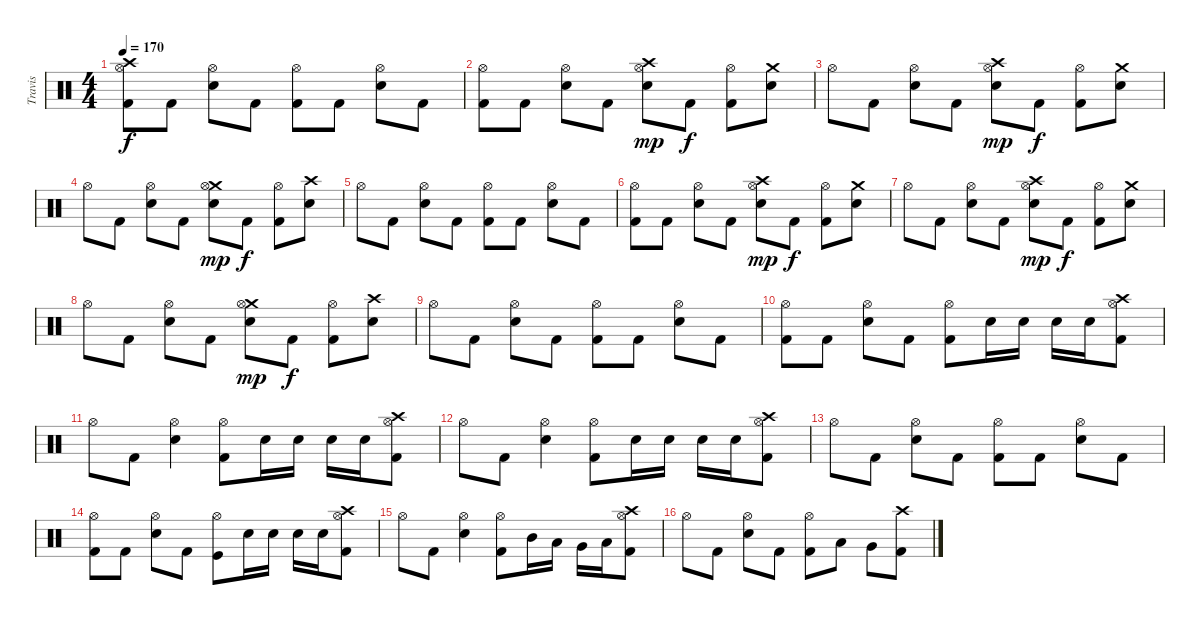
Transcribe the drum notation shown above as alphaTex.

\track ("Travis" "Travis") {instrument percussion}
\staff {score}
\articulation defaults
\ts (4 4)
\tempo 170
\clef neutral
\ks c
("Crash high (hit)" "Hi-Hat (open)" "Kick (hit) 2").8{dy f} "Kick (hit) 2".8 ("Hi-Hat (open)" "Snare (hit) 2").8 "Kick (hit) 2".8 ("Hi-Hat (open)" "Kick (hit) 2").8 "Kick (hit) 2".8 ("Hi-Hat (open)" "Snare (hit) 2").8 "Kick (hit) 2".8 |
("Hi-Hat (open)" "Kick (hit) 2").8 "Kick (hit) 2".8 ("Hi-Hat (open)" "Snare (hit) 2").8 "Kick (hit) 2".8 ("Crash high (hit)" "Hi-Hat (open)" "Snare (hit) 2").8{dy mp} "Kick (hit) 2".8{dy f} ("Hi-Hat (open)" "Kick (hit) 2").8 ("Crash medium (hit)" "Snare (hit) 2").8 |
"Hi-Hat (open)".8 "Kick (hit) 2".8 ("Hi-Hat (open)" "Snare (hit) 2").8 "Kick (hit) 2".8 ("Crash high (hit)" "Hi-Hat (open)" "Snare (hit) 2").8{dy mp} "Kick (hit) 2".8{dy f} ("Hi-Hat (open)" "Kick (hit) 2").8 ("Crash medium (hit)" "Snare (hit) 2").8 |
"Hi-Hat (open)".8 "Kick (hit) 2".8 ("Hi-Hat (open)" "Snare (hit) 2").8 "Kick (hit) 2".8 ("Crash medium (hit)" "Hi-Hat (open)" "Snare (hit) 2").8{dy mp} "Kick (hit) 2".8{dy f} ("Hi-Hat (open)" "Kick (hit) 2").8 ("Crash high (hit)" "Snare (hit) 2").8 |
"Hi-Hat (open)".8 "Kick (hit) 2".8 ("Hi-Hat (open)" "Snare (hit) 2").8 "Kick (hit) 2".8 ("Hi-Hat (open)" "Kick (hit) 2").8 "Kick (hit) 2".8 ("Hi-Hat (open)" "Snare (hit) 2").8 "Kick (hit) 2".8 |
("Hi-Hat (open)" "Kick (hit) 2").8 "Kick (hit) 2".8 ("Hi-Hat (open)" "Snare (hit) 2").8 "Kick (hit) 2".8 ("Crash high (hit)" "Hi-Hat (open)" "Snare (hit) 2").8{dy mp} "Kick (hit) 2".8{dy f} ("Hi-Hat (open)" "Kick (hit) 2").8 ("Crash medium (hit)" "Snare (hit) 2").8 |
"Hi-Hat (open)".8 "Kick (hit) 2".8 ("Hi-Hat (open)" "Snare (hit) 2").8 "Kick (hit) 2".8 ("Crash high (hit)" "Hi-Hat (open)" "Snare (hit) 2").8{dy mp} "Kick (hit) 2".8{dy f} ("Hi-Hat (open)" "Kick (hit) 2").8 ("Crash medium (hit)" "Snare (hit) 2").8 |
"Hi-Hat (open)".8 "Kick (hit) 2".8 ("Hi-Hat (open)" "Snare (hit) 2").8 "Kick (hit) 2".8 ("Crash medium (hit)" "Hi-Hat (open)" "Snare (hit) 2").8{dy mp} "Kick (hit) 2".8{dy f} ("Hi-Hat (open)" "Kick (hit) 2").8 ("Crash high (hit)" "Snare (hit) 2").8 |
"Hi-Hat (open)".8 "Kick (hit) 2".8 ("Hi-Hat (open)" "Snare (hit) 2").8 "Kick (hit) 2".8 ("Hi-Hat (open)" "Kick (hit) 2").8 "Kick (hit) 2".8 ("Hi-Hat (open)" "Snare (hit) 2").8 "Kick (hit) 2".8 |
("Hi-Hat (open)" "Kick (hit) 2").8 "Kick (hit) 2".8 ("Hi-Hat (open)" "Snare (hit) 2").8 "Kick (hit) 2".8 ("Hi-Hat (open)" "Kick (hit) 2").8 "Snare (hit) 2".16 "Snare (hit) 2".16 "Snare (hit) 2".16 "Snare (hit) 2".16 ("Crash high (hit)" "Hi-Hat (open)" "Kick (hit) 2").8 |
"Hi-Hat (open)".8 "Kick (hit) 2".8 ("Hi-Hat (open)" "Snare (hit) 2").4 ("Hi-Hat (open)" "Kick (hit) 2").8 "Snare (hit) 2".16 "Snare (hit) 2".16 "Snare (hit) 2".16 "Snare (hit) 2".16 ("Crash high (hit)" "Hi-Hat (open)" "Kick (hit) 2").8 |
"Hi-Hat (open)".8 "Kick (hit) 2".8 ("Hi-Hat (open)" "Snare (hit) 2").4 ("Hi-Hat (open)" "Kick (hit) 2").8 "Snare (hit) 2".16 "Snare (hit) 2".16 "Snare (hit) 2".16 "Snare (hit) 2".16 ("Crash high (hit)" "Hi-Hat (open)" "Kick (hit) 2").8 |
"Hi-Hat (open)".8 "Kick (hit) 2".8 ("Hi-Hat (open)" "Snare (hit) 2").8 "Kick (hit) 2".8 ("Hi-Hat (open)" "Kick (hit) 2").8 "Kick (hit) 2".8 ("Hi-Hat (open)" "Snare (hit) 2").8 "Kick (hit) 2".8 |
("Hi-Hat (open)" "Kick (hit) 2").8 "Kick (hit) 2".8 ("Hi-Hat (open)" "Snare (hit) 2").8 "Kick (hit) 2".8 ("Hi-Hat (open)" "Kick (hit)").8 "Snare (hit) 2".16 "Snare (hit) 2".16 "Snare (hit) 2".16 "Snare (hit) 2".16 ("Crash high (hit)" "Hi-Hat (open)" "Kick (hit) 2").8 |
"Hi-Hat (open)".8 "Kick (hit) 2".8 ("Hi-Hat (open)" "Snare (hit) 2").4 ("Hi-Hat (open)" "Kick (hit) 2").8 "Mid Tom (hit)".16 "Low Tom (hit)".16 "Very Low Tom (hit)".16 "Low Floor Tom (hit)".16 ("Crash high (hit)" "Hi-Hat (open)" "Kick (hit) 2").8 |
"Hi-Hat (open)".8 "Kick (hit) 2".8 ("Hi-Hat (open)" "Snare (hit) 2").8 "Kick (hit) 2".8 ("Hi-Hat (open)" "Kick (hit) 2").8 "Low Tom (hit)".8 "Very Low Tom (hit)".8 ("Crash high (hit)" "Kick (hit) 2").8
